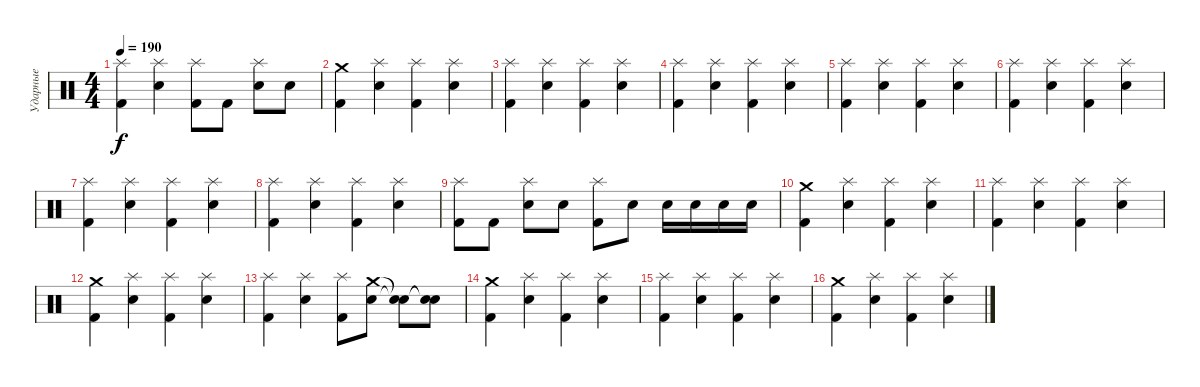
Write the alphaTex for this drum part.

\track ("Ударные" "Ударные") {instrument percussion}
\staff {score}
\articulation defaults
\ts (4 4)
\tempo 190
\clef neutral
\ks c
("Splash (hit)" "Kick (hit) 2").4{dy f} ("Splash (hit)" "Snare (hit) 2").4 ("Splash (hit)" "Kick (hit) 2").8 "Kick (hit) 2".8 ("Splash (hit)" "Snare (hit) 2").8 "Snare (hit) 2".8 |
("Crash medium (hit)" "Kick (hit) 2").4 ("Splash (hit)" "Snare (hit) 2").4 ("Splash (hit)" "Kick (hit) 2").4 ("Splash (hit)" "Snare (hit) 2").4 |
("Splash (hit)" "Kick (hit) 2").4 ("Splash (hit)" "Snare (hit) 2").4 ("Splash (hit)" "Kick (hit) 2").4 ("Splash (hit)" "Snare (hit) 2").4 |
("Splash (hit)" "Kick (hit) 2").4 ("Splash (hit)" "Snare (hit) 2").4 ("Splash (hit)" "Kick (hit) 2").4 ("Splash (hit)" "Snare (hit) 2").4 |
("Splash (hit)" "Kick (hit) 2").4 ("Splash (hit)" "Snare (hit) 2").4 ("Splash (hit)" "Kick (hit) 2").4 ("Splash (hit)" "Snare (hit) 2").4 |
("Splash (hit)" "Kick (hit) 2").4 ("Splash (hit)" "Snare (hit) 2").4 ("Splash (hit)" "Kick (hit) 2").4 ("Splash (hit)" "Snare (hit) 2").4 |
("Splash (hit)" "Kick (hit) 2").4 ("Splash (hit)" "Snare (hit) 2").4 ("Splash (hit)" "Kick (hit) 2").4 ("Splash (hit)" "Snare (hit) 2").4 |
("Splash (hit)" "Kick (hit) 2").4 ("Splash (hit)" "Snare (hit) 2").4 ("Splash (hit)" "Kick (hit) 2").4 ("Splash (hit)" "Snare (hit) 2").4 |
("Splash (hit)" "Kick (hit) 2").8 "Kick (hit) 2".8 ("Splash (hit)" "Snare (hit) 2").8 "Snare (hit) 2".8 ("Splash (hit)" "Kick (hit) 2").8 "Snare (hit) 2".8 "Snare (hit) 2".16 "Snare (hit) 2".16 "Snare (hit) 2".16 "Snare (hit) 2".16 |
("Crash medium (hit)" "Kick (hit) 2").4 ("Splash (hit)" "Snare (hit) 2").4 ("Splash (hit)" "Kick (hit) 2").4 ("Splash (hit)" "Snare (hit) 2").4 |
("Splash (hit)" "Kick (hit) 2").4 ("Splash (hit)" "Snare (hit) 2").4 ("Splash (hit)" "Kick (hit) 2").4 ("Splash (hit)" "Snare (hit) 2").4 |
("Crash medium (hit)" "Kick (hit) 2").4 ("Splash (hit)" "Snare (hit) 2").4 ("Splash (hit)" "Kick (hit) 2").4 ("Splash (hit)" "Snare (hit) 2").4 |
("Splash (hit)" "Kick (hit) 2").4 ("Splash (hit)" "Snare (hit) 2").4 ("Splash (hit)" "Kick (hit) 2").8 ("Crash medium (hit)" "Snare (hit) 2").8 ("Snare (hit)"{t} "Snare (hit)"{t}).8 ("Snare (hit)"{t} "Snare (hit)"{t}).8 |
("Crash medium (hit)" "Kick (hit) 2").4 ("Splash (hit)" "Snare (hit) 2").4 ("Splash (hit)" "Kick (hit) 2").4 ("Splash (hit)" "Snare (hit) 2").4 |
("Splash (hit)" "Kick (hit) 2").4 ("Splash (hit)" "Snare (hit) 2").4 ("Splash (hit)" "Kick (hit) 2").4 ("Splash (hit)" "Snare (hit) 2").4 |
("Crash medium (hit)" "Kick (hit) 2").4 ("Splash (hit)" "Snare (hit) 2").4 ("Splash (hit)" "Kick (hit) 2").4 ("Splash (hit)" "Snare (hit) 2").4
